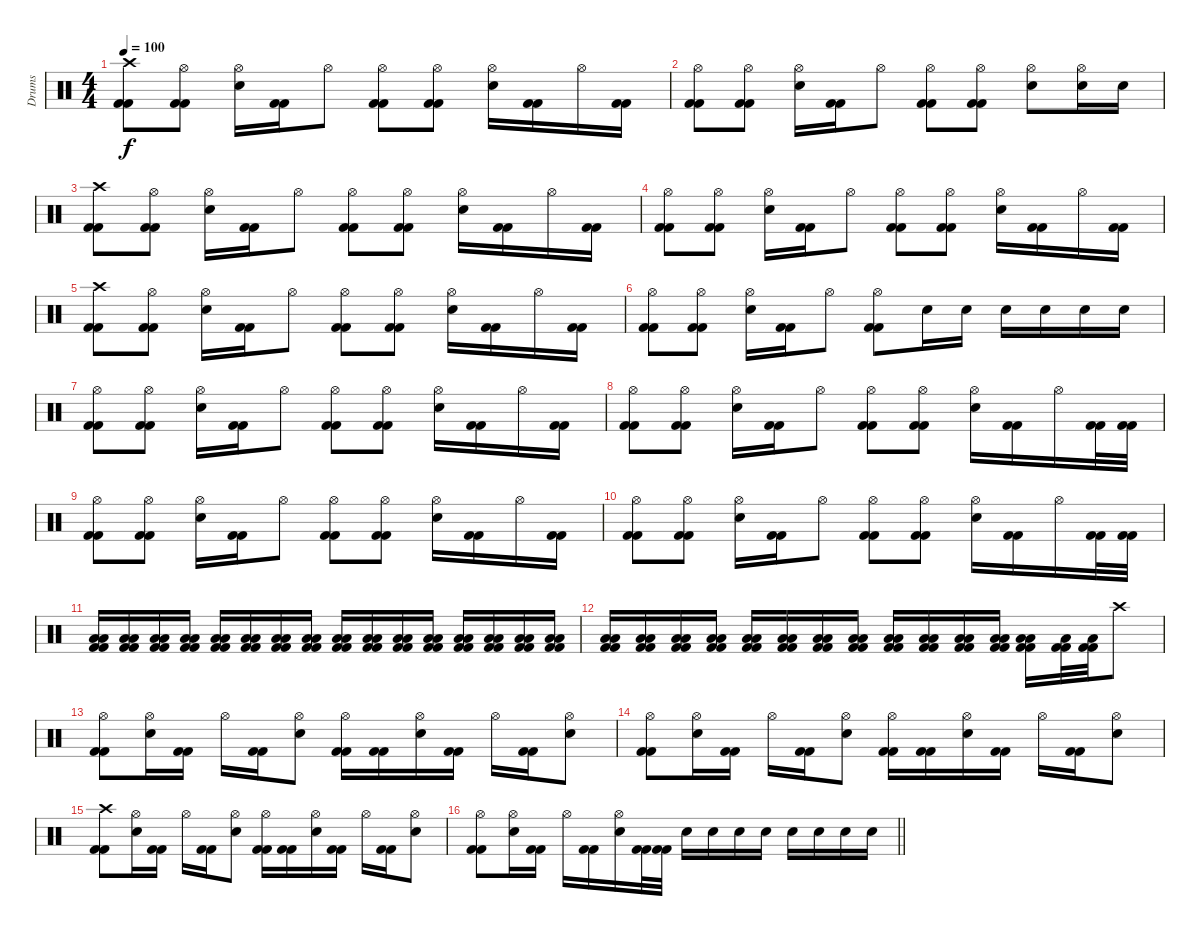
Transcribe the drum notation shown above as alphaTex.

\track ("Drums" "Drums") {instrument percussion}
\staff {score}
\articulation defaults
\ts (4 4)
\tempo 100
\clef neutral
\ks c
("Crash high (hit)" "Kick (hit) 2" "Kick (hit) 2").8{dy f} ("Hi-Hat (open)" "Kick (hit) 2" "Kick (hit) 2").8 ("Hi-Hat (open)" "Electric Snare (hit)").16 ("Kick (hit) 2" "Kick (hit) 2").16 "Hi-Hat (open)".8 ("Hi-Hat (open)" "Kick (hit) 2" "Kick (hit) 2").8 ("Hi-Hat (open)" "Kick (hit) 2" "Kick (hit) 2").8 ("Hi-Hat (open)" "Electric Snare (hit)").16 ("Kick (hit) 2" "Kick (hit) 2").16 "Hi-Hat (open)".16 ("Kick (hit) 2" "Kick (hit) 2").16 |
("Hi-Hat (open)" "Kick (hit) 2" "Kick (hit) 2").8 ("Hi-Hat (open)" "Kick (hit) 2" "Kick (hit) 2").8 ("Hi-Hat (open)" "Electric Snare (hit)").16 ("Kick (hit) 2" "Kick (hit) 2").16 "Hi-Hat (open)".8 ("Hi-Hat (open)" "Kick (hit) 2" "Kick (hit) 2").8 ("Hi-Hat (open)" "Kick (hit) 2" "Kick (hit) 2").8 ("Hi-Hat (open)" "Electric Snare (hit)").8 ("Hi-Hat (open)" "Electric Snare (hit)").16 "Electric Snare (hit)".16 |
("Crash high (hit)" "Kick (hit) 2" "Kick (hit) 2").8 ("Hi-Hat (open)" "Kick (hit) 2" "Kick (hit) 2").8 ("Hi-Hat (open)" "Electric Snare (hit)").16 ("Kick (hit) 2" "Kick (hit) 2").16 "Hi-Hat (open)".8 ("Hi-Hat (open)" "Kick (hit) 2" "Kick (hit) 2").8 ("Hi-Hat (open)" "Kick (hit) 2" "Kick (hit) 2").8 ("Hi-Hat (open)" "Electric Snare (hit)").16 ("Kick (hit) 2" "Kick (hit) 2").16 "Hi-Hat (open)".16 ("Kick (hit) 2" "Kick (hit) 2").16 |
("Hi-Hat (open)" "Kick (hit) 2" "Kick (hit) 2").8 ("Hi-Hat (open)" "Kick (hit) 2" "Kick (hit) 2").8 ("Hi-Hat (open)" "Electric Snare (hit)").16 ("Kick (hit) 2" "Kick (hit) 2").16 "Hi-Hat (open)".8 ("Hi-Hat (open)" "Kick (hit) 2" "Kick (hit) 2").8 ("Hi-Hat (open)" "Kick (hit) 2" "Kick (hit) 2").8 ("Hi-Hat (open)" "Electric Snare (hit)").16 ("Kick (hit) 2" "Kick (hit) 2").16 "Hi-Hat (open)".16 ("Kick (hit) 2" "Kick (hit) 2").16 |
("Crash high (hit)" "Kick (hit) 2" "Kick (hit) 2").8 ("Hi-Hat (open)" "Kick (hit) 2" "Kick (hit) 2").8 ("Hi-Hat (open)" "Electric Snare (hit)").16 ("Kick (hit) 2" "Kick (hit) 2").16 "Hi-Hat (open)".8 ("Hi-Hat (open)" "Kick (hit) 2" "Kick (hit) 2").8 ("Hi-Hat (open)" "Kick (hit) 2" "Kick (hit) 2").8 ("Hi-Hat (open)" "Electric Snare (hit)").16 ("Kick (hit) 2" "Kick (hit) 2").16 "Hi-Hat (open)".16 ("Kick (hit) 2" "Kick (hit) 2").16 |
("Hi-Hat (open)" "Kick (hit) 2" "Kick (hit) 2").8 ("Hi-Hat (open)" "Kick (hit) 2" "Kick (hit) 2").8 ("Hi-Hat (open)" "Electric Snare (hit)").16 ("Kick (hit) 2" "Kick (hit) 2").16 "Hi-Hat (open)".8 ("Hi-Hat (open)" "Kick (hit) 2" "Kick (hit) 2").8 "Electric Snare (hit)".16 "Electric Snare (hit)".16 "Electric Snare (hit)".16 "Electric Snare (hit)".16 "Electric Snare (hit)".16 "Electric Snare (hit)".16 |
("Hi-Hat (open)" "Kick (hit) 2" "Kick (hit) 2").8 ("Hi-Hat (open)" "Kick (hit) 2" "Kick (hit) 2").8 ("Hi-Hat (open)" "Electric Snare (hit)").16 ("Kick (hit) 2" "Kick (hit) 2").16 "Hi-Hat (open)".8 ("Hi-Hat (open)" "Kick (hit) 2" "Kick (hit) 2").8 ("Hi-Hat (open)" "Kick (hit) 2" "Kick (hit) 2").8 ("Hi-Hat (open)" "Electric Snare (hit)").16 ("Kick (hit) 2" "Kick (hit) 2").16 "Hi-Hat (open)".16 ("Kick (hit) 2" "Kick (hit) 2").16 |
("Hi-Hat (open)" "Kick (hit) 2" "Kick (hit) 2").8 ("Hi-Hat (open)" "Kick (hit) 2" "Kick (hit) 2").8 ("Hi-Hat (open)" "Electric Snare (hit)").16 ("Kick (hit) 2" "Kick (hit) 2").16 "Hi-Hat (open)".8 ("Hi-Hat (open)" "Kick (hit) 2" "Kick (hit) 2").8 ("Hi-Hat (open)" "Kick (hit) 2" "Kick (hit) 2").8 ("Hi-Hat (open)" "Electric Snare (hit)").16 ("Kick (hit) 2" "Kick (hit) 2").16 "Hi-Hat (open)".16 ("Kick (hit) 2" "Kick (hit) 2").32 ("Kick (hit) 2" "Kick (hit) 2").32 |
("Hi-Hat (open)" "Kick (hit) 2" "Kick (hit) 2").8 ("Hi-Hat (open)" "Kick (hit) 2" "Kick (hit) 2").8 ("Hi-Hat (open)" "Electric Snare (hit)").16 ("Kick (hit) 2" "Kick (hit) 2").16 "Hi-Hat (open)".8 ("Hi-Hat (open)" "Kick (hit) 2" "Kick (hit) 2").8 ("Hi-Hat (open)" "Kick (hit) 2" "Kick (hit) 2").8 ("Hi-Hat (open)" "Electric Snare (hit)").16 ("Kick (hit) 2" "Kick (hit) 2").16 "Hi-Hat (open)".16 ("Kick (hit) 2" "Kick (hit) 2").16 |
("Hi-Hat (open)" "Kick (hit) 2" "Kick (hit) 2").8 ("Hi-Hat (open)" "Kick (hit) 2" "Kick (hit) 2").8 ("Hi-Hat (open)" "Electric Snare (hit)").16 ("Kick (hit) 2" "Kick (hit) 2").16 "Hi-Hat (open)".8 ("Hi-Hat (open)" "Kick (hit) 2" "Kick (hit) 2").8 ("Hi-Hat (open)" "Kick (hit) 2" "Kick (hit) 2").8 ("Hi-Hat (open)" "Electric Snare (hit)").16 ("Kick (hit) 2" "Kick (hit) 2").16 "Hi-Hat (open)".16 ("Kick (hit) 2" "Kick (hit) 2").32 ("Kick (hit) 2" "Kick (hit) 2").32 |
("Low Floor Tom (hit)" "Low Tom (hit)" "Kick (hit) 2" "Kick (hit) 2").16 ("Low Floor Tom (hit)" "Low Tom (hit)" "Kick (hit) 2" "Kick (hit) 2").16 ("Low Floor Tom (hit)" "Low Tom (hit)" "Kick (hit) 2" "Kick (hit) 2").16 ("Low Floor Tom (hit)" "Low Tom (hit)" "Kick (hit) 2" "Kick (hit) 2").16 ("Low Floor Tom (hit)" "Low Tom (hit)" "Kick (hit) 2" "Kick (hit) 2").16 ("Low Floor Tom (hit)" "Low Tom (hit)" "Kick (hit) 2" "Kick (hit) 2").16 ("Low Floor Tom (hit)" "Low Tom (hit)" "Kick (hit) 2" "Kick (hit) 2").16 ("Low Floor Tom (hit)" "Low Tom (hit)" "Kick (hit) 2" "Kick (hit) 2").16 ("Low Floor Tom (hit)" "Low Tom (hit)" "Kick (hit) 2" "Kick (hit) 2").16 ("Low Floor Tom (hit)" "Low Tom (hit)" "Kick (hit) 2" "Kick (hit) 2").16 ("Low Floor Tom (hit)" "Low Tom (hit)" "Kick (hit) 2" "Kick (hit) 2").16 ("Low Floor Tom (hit)" "Low Tom (hit)" "Kick (hit) 2" "Kick (hit) 2").16 ("Low Floor Tom (hit)" "Low Tom (hit)" "Kick (hit) 2" "Kick (hit) 2").16 ("Low Floor Tom (hit)" "Low Tom (hit)" "Kick (hit) 2" "Kick (hit) 2").16 ("Low Floor Tom (hit)" "Low Tom (hit)" "Kick (hit) 2" "Kick (hit) 2").16 ("Low Floor Tom (hit)" "Low Tom (hit)" "Kick (hit) 2" "Kick (hit) 2").16 |
("Low Floor Tom (hit)" "Low Tom (hit)" "Kick (hit) 2" "Kick (hit) 2").16 ("Low Floor Tom (hit)" "Low Tom (hit)" "Kick (hit) 2" "Kick (hit) 2").16 ("Low Floor Tom (hit)" "Low Tom (hit)" "Kick (hit) 2" "Kick (hit) 2").16 ("Low Floor Tom (hit)" "Low Tom (hit)" "Kick (hit) 2" "Kick (hit) 2").16 ("Low Floor Tom (hit)" "Low Tom (hit)" "Kick (hit) 2" "Kick (hit) 2").16 ("Low Floor Tom (hit)" "Low Tom (hit)" "Kick (hit) 2" "Kick (hit) 2").16 ("Low Floor Tom (hit)" "Low Tom (hit)" "Kick (hit) 2" "Kick (hit) 2").16 ("Low Floor Tom (hit)" "Low Tom (hit)" "Kick (hit) 2" "Kick (hit) 2").16 ("Low Floor Tom (hit)" "Low Tom (hit)" "Kick (hit) 2" "Kick (hit) 2").16 ("Low Floor Tom (hit)" "Low Tom (hit)" "Kick (hit) 2" "Kick (hit) 2").16 ("Low Floor Tom (hit)" "Low Tom (hit)" "Kick (hit) 2" "Kick (hit) 2").16 ("Low Floor Tom (hit)" "Low Tom (hit)" "Kick (hit) 2" "Kick (hit) 2").16 ("Low Floor Tom (hit)" "Low Tom (hit)" "Kick (hit) 2" "Kick (hit) 2").16 ("Low Tom (hit)" "Kick (hit) 2" "Kick (hit) 2").32 ("Low Tom (hit)" "Kick (hit) 2" "Kick (hit) 2").32 "Crash high (hit)".8 |
("Hi-Hat (open)" "Kick (hit) 2" "Kick (hit) 2").8 ("Hi-Hat (open)" "Electric Snare (hit)").16 ("Kick (hit) 2" "Kick (hit) 2").16 "Hi-Hat (open)".16 ("Kick (hit) 2" "Kick (hit) 2").16 ("Hi-Hat (open)" "Electric Snare (hit)").8 ("Hi-Hat (open)" "Kick (hit) 2" "Kick (hit) 2").16 ("Kick (hit) 2" "Kick (hit) 2").16 ("Hi-Hat (open)" "Electric Snare (hit)").16 ("Kick (hit) 2" "Kick (hit) 2").16 "Hi-Hat (open)".16 ("Kick (hit) 2" "Kick (hit) 2").16 ("Hi-Hat (open)" "Electric Snare (hit)").8 |
("Hi-Hat (open)" "Kick (hit) 2" "Kick (hit) 2").8 ("Hi-Hat (open)" "Electric Snare (hit)").16 ("Kick (hit) 2" "Kick (hit) 2").16 "Hi-Hat (open)".16 ("Kick (hit) 2" "Kick (hit) 2").16 ("Hi-Hat (open)" "Electric Snare (hit)").8 ("Hi-Hat (open)" "Kick (hit) 2" "Kick (hit) 2").16 ("Kick (hit) 2" "Kick (hit) 2").16 ("Hi-Hat (open)" "Electric Snare (hit)").16 ("Kick (hit) 2" "Kick (hit) 2").16 "Hi-Hat (open)".16 ("Kick (hit) 2" "Kick (hit) 2").16 ("Hi-Hat (open)" "Electric Snare (hit)").8 |
("Crash high (hit)" "Kick (hit) 2" "Kick (hit) 2").8 ("Hi-Hat (open)" "Electric Snare (hit)").16 ("Kick (hit) 2" "Kick (hit) 2").16 "Hi-Hat (open)".16 ("Kick (hit) 2" "Kick (hit) 2").16 ("Hi-Hat (open)" "Electric Snare (hit)").8 ("Hi-Hat (open)" "Kick (hit) 2" "Kick (hit) 2").16 ("Kick (hit) 2" "Kick (hit) 2").16 ("Hi-Hat (open)" "Electric Snare (hit)").16 ("Kick (hit) 2" "Kick (hit) 2").16 "Hi-Hat (open)".16 ("Kick (hit) 2" "Kick (hit) 2").16 ("Hi-Hat (open)" "Electric Snare (hit)").8 |
\barLineRight lightlight
("Hi-Hat (open)" "Kick (hit) 2" "Kick (hit) 2").8 ("Hi-Hat (open)" "Electric Snare (hit)").16 ("Kick (hit) 2" "Kick (hit) 2").16 "Hi-Hat (open)".16 ("Kick (hit) 2" "Kick (hit) 2").16 ("Hi-Hat (open)" "Electric Snare (hit)").16 ("Kick (hit) 2" "Kick (hit) 2").32 ("Kick (hit) 2" "Kick (hit) 2").32 "Electric Snare (hit)".16 "Electric Snare (hit)".16 "Electric Snare (hit)".16 "Electric Snare (hit)".16 "Electric Snare (hit)".16 "Electric Snare (hit)".16 "Electric Snare (hit)".16 "Electric Snare (hit)".16
